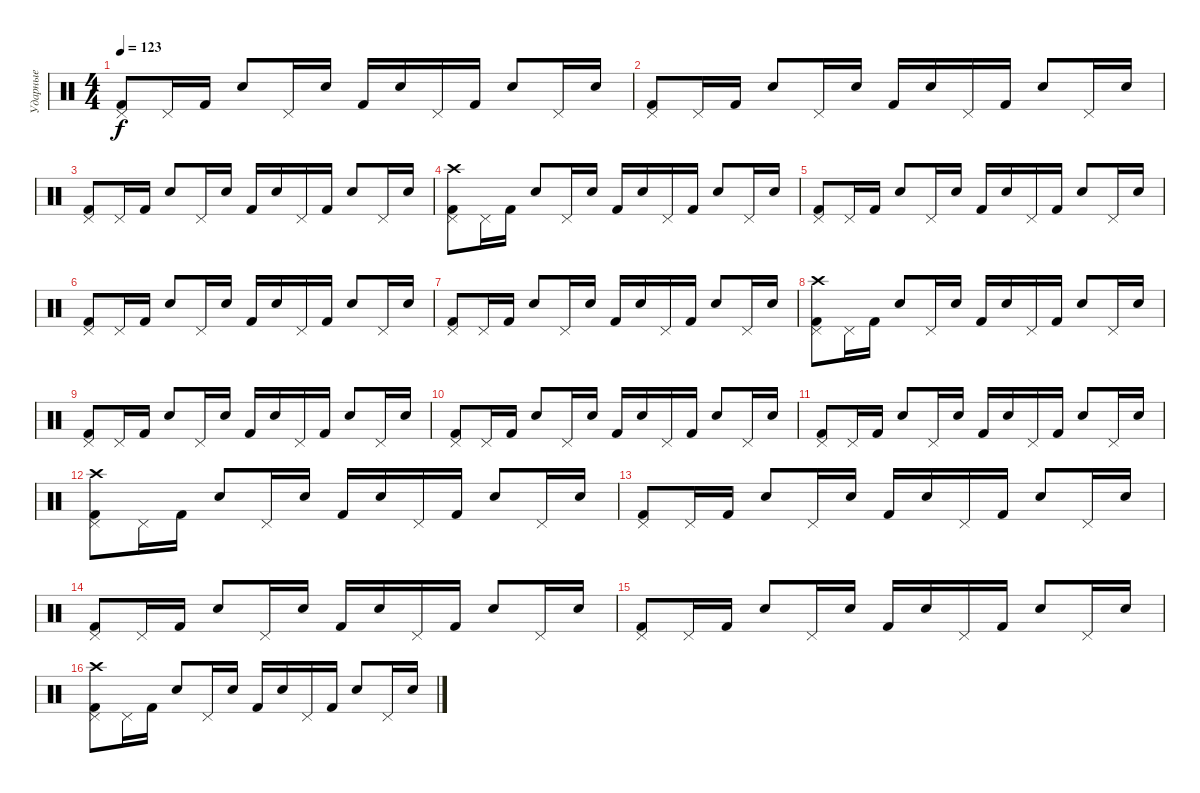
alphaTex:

\track ("Ударные" "Ударные") {instrument percussion}
\staff {score}
\articulation defaults
\ts (4 4)
\tempo 123
\clef neutral
\ks c
("Kick (hit) 2" "Pedal Hi-Hat (hit)").8{dy f} "Pedal Hi-Hat (hit)".16 "Kick (hit) 2".16 "Snare (hit) 2".8 "Pedal Hi-Hat (hit)".16 "Snare (hit) 2".16 "Kick (hit) 2".16 "Snare (hit) 2".16 "Pedal Hi-Hat (hit)".16 "Kick (hit) 2".16 "Snare (hit) 2".8 "Pedal Hi-Hat (hit)".16 "Snare (hit) 2".16 |
("Kick (hit) 2" "Pedal Hi-Hat (hit)").8 "Pedal Hi-Hat (hit)".16 "Kick (hit) 2".16 "Snare (hit) 2".8 "Pedal Hi-Hat (hit)".16 "Snare (hit) 2".16 "Kick (hit) 2".16 "Snare (hit) 2".16 "Pedal Hi-Hat (hit)".16 "Kick (hit) 2".16 "Snare (hit) 2".8 "Pedal Hi-Hat (hit)".16 "Snare (hit) 2".16 |
("Kick (hit) 2" "Pedal Hi-Hat (hit)").8 "Pedal Hi-Hat (hit)".16 "Kick (hit) 2".16 "Snare (hit) 2".8 "Pedal Hi-Hat (hit)".16 "Snare (hit) 2".16 "Kick (hit) 2".16 "Snare (hit) 2".16 "Pedal Hi-Hat (hit)".16 "Kick (hit) 2".16 "Snare (hit) 2".8 "Pedal Hi-Hat (hit)".16 "Snare (hit) 2".16 |
("Kick (hit) 2" "Pedal Hi-Hat (hit)" "Crash high (hit)").8 "Pedal Hi-Hat (hit)".16 "Kick (hit) 2".16 "Snare (hit) 2".8 "Pedal Hi-Hat (hit)".16 "Snare (hit) 2".16 "Kick (hit) 2".16 "Snare (hit) 2".16 "Pedal Hi-Hat (hit)".16 "Kick (hit) 2".16 "Snare (hit) 2".8 "Pedal Hi-Hat (hit)".16 "Snare (hit) 2".16 |
("Kick (hit) 2" "Pedal Hi-Hat (hit)").8 "Pedal Hi-Hat (hit)".16 "Kick (hit) 2".16 "Snare (hit) 2".8 "Pedal Hi-Hat (hit)".16 "Snare (hit) 2".16 "Kick (hit) 2".16 "Snare (hit) 2".16 "Pedal Hi-Hat (hit)".16 "Kick (hit) 2".16 "Snare (hit) 2".8 "Pedal Hi-Hat (hit)".16 "Snare (hit) 2".16 |
("Kick (hit) 2" "Pedal Hi-Hat (hit)").8 "Pedal Hi-Hat (hit)".16 "Kick (hit) 2".16 "Snare (hit) 2".8 "Pedal Hi-Hat (hit)".16 "Snare (hit) 2".16 "Kick (hit) 2".16 "Snare (hit) 2".16 "Pedal Hi-Hat (hit)".16 "Kick (hit) 2".16 "Snare (hit) 2".8 "Pedal Hi-Hat (hit)".16 "Snare (hit) 2".16 |
("Kick (hit) 2" "Pedal Hi-Hat (hit)").8 "Pedal Hi-Hat (hit)".16 "Kick (hit) 2".16 "Snare (hit) 2".8 "Pedal Hi-Hat (hit)".16 "Snare (hit) 2".16 "Kick (hit) 2".16 "Snare (hit) 2".16 "Pedal Hi-Hat (hit)".16 "Kick (hit) 2".16 "Snare (hit) 2".8 "Pedal Hi-Hat (hit)".16 "Snare (hit) 2".16 |
("Kick (hit) 2" "Pedal Hi-Hat (hit)" "Crash high (hit)").8 "Pedal Hi-Hat (hit)".16 "Kick (hit) 2".16 "Snare (hit) 2".8 "Pedal Hi-Hat (hit)".16 "Snare (hit) 2".16 "Kick (hit) 2".16 "Snare (hit) 2".16 "Pedal Hi-Hat (hit)".16 "Kick (hit) 2".16 "Snare (hit) 2".8 "Pedal Hi-Hat (hit)".16 "Snare (hit) 2".16 |
("Kick (hit) 2" "Pedal Hi-Hat (hit)").8 "Pedal Hi-Hat (hit)".16 "Kick (hit) 2".16 "Snare (hit) 2".8 "Pedal Hi-Hat (hit)".16 "Snare (hit) 2".16 "Kick (hit) 2".16 "Snare (hit) 2".16 "Pedal Hi-Hat (hit)".16 "Kick (hit) 2".16 "Snare (hit) 2".8 "Pedal Hi-Hat (hit)".16 "Snare (hit) 2".16 |
("Kick (hit) 2" "Pedal Hi-Hat (hit)").8 "Pedal Hi-Hat (hit)".16 "Kick (hit) 2".16 "Snare (hit) 2".8 "Pedal Hi-Hat (hit)".16 "Snare (hit) 2".16 "Kick (hit) 2".16 "Snare (hit) 2".16 "Pedal Hi-Hat (hit)".16 "Kick (hit) 2".16 "Snare (hit) 2".8 "Pedal Hi-Hat (hit)".16 "Snare (hit) 2".16 |
("Kick (hit) 2" "Pedal Hi-Hat (hit)").8 "Pedal Hi-Hat (hit)".16 "Kick (hit) 2".16 "Snare (hit) 2".8 "Pedal Hi-Hat (hit)".16 "Snare (hit) 2".16 "Kick (hit) 2".16 "Snare (hit) 2".16 "Pedal Hi-Hat (hit)".16 "Kick (hit) 2".16 "Snare (hit) 2".8 "Pedal Hi-Hat (hit)".16 "Snare (hit) 2".16 |
("Kick (hit) 2" "Pedal Hi-Hat (hit)" "Crash high (hit)").8 "Pedal Hi-Hat (hit)".16 "Kick (hit) 2".16 "Snare (hit) 2".8 "Pedal Hi-Hat (hit)".16 "Snare (hit) 2".16 "Kick (hit) 2".16 "Snare (hit) 2".16 "Pedal Hi-Hat (hit)".16 "Kick (hit) 2".16 "Snare (hit) 2".8 "Pedal Hi-Hat (hit)".16 "Snare (hit) 2".16 |
("Kick (hit) 2" "Pedal Hi-Hat (hit)").8 "Pedal Hi-Hat (hit)".16 "Kick (hit) 2".16 "Snare (hit) 2".8 "Pedal Hi-Hat (hit)".16 "Snare (hit) 2".16 "Kick (hit) 2".16 "Snare (hit) 2".16 "Pedal Hi-Hat (hit)".16 "Kick (hit) 2".16 "Snare (hit) 2".8 "Pedal Hi-Hat (hit)".16 "Snare (hit) 2".16 |
("Kick (hit) 2" "Pedal Hi-Hat (hit)").8 "Pedal Hi-Hat (hit)".16 "Kick (hit) 2".16 "Snare (hit) 2".8 "Pedal Hi-Hat (hit)".16 "Snare (hit) 2".16 "Kick (hit) 2".16 "Snare (hit) 2".16 "Pedal Hi-Hat (hit)".16 "Kick (hit) 2".16 "Snare (hit) 2".8 "Pedal Hi-Hat (hit)".16 "Snare (hit) 2".16 |
("Kick (hit) 2" "Pedal Hi-Hat (hit)").8 "Pedal Hi-Hat (hit)".16 "Kick (hit) 2".16 "Snare (hit) 2".8 "Pedal Hi-Hat (hit)".16 "Snare (hit) 2".16 "Kick (hit) 2".16 "Snare (hit) 2".16 "Pedal Hi-Hat (hit)".16 "Kick (hit) 2".16 "Snare (hit) 2".8 "Pedal Hi-Hat (hit)".16 "Snare (hit) 2".16 |
("Kick (hit) 2" "Pedal Hi-Hat (hit)" "Crash high (hit)").8 "Pedal Hi-Hat (hit)".16 "Kick (hit) 2".16 "Snare (hit) 2".8 "Pedal Hi-Hat (hit)".16 "Snare (hit) 2".16 "Kick (hit) 2".16 "Snare (hit) 2".16 "Pedal Hi-Hat (hit)".16 "Kick (hit) 2".16 "Snare (hit) 2".8 "Pedal Hi-Hat (hit)".16 "Snare (hit) 2".16
